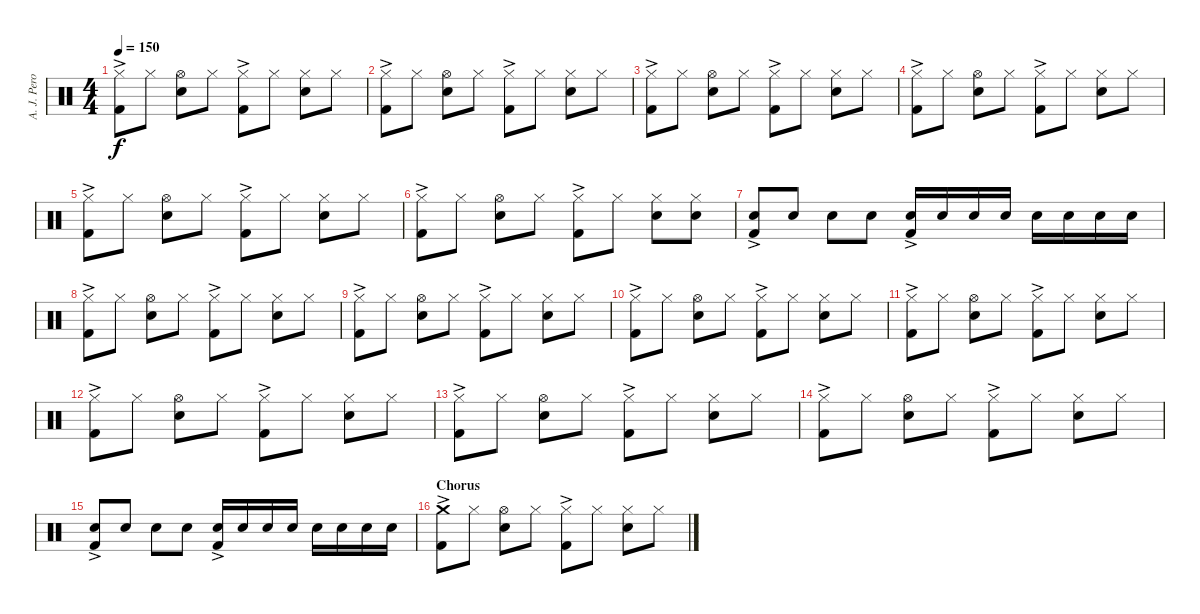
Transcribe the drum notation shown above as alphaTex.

\track ("A. J. Pero - Drums" "A. J. Pero") {instrument percussion}
\staff {score}
\articulation defaults
\ts (4 4)
\tempo 150
\clef neutral
\ks c
("Hi-Hat (closed)" "Kick (hit) 2"{ac}).8{dy f} "Hi-Hat (closed)".8 ("Hi-Hat (open)" "Electric Snare (hit)").8 "Hi-Hat (closed)".8 ("Hi-Hat (closed)" "Kick (hit) 2"{ac}).8 "Hi-Hat (closed)".8 ("Hi-Hat (closed)" "Electric Snare (hit)").8 "Hi-Hat (closed)".8 |
("Hi-Hat (closed)" "Kick (hit) 2"{ac}).8 "Hi-Hat (closed)".8 ("Hi-Hat (open)" "Electric Snare (hit)").8 "Hi-Hat (closed)".8 ("Hi-Hat (closed)" "Kick (hit) 2"{ac}).8 "Hi-Hat (closed)".8 ("Hi-Hat (closed)" "Electric Snare (hit)").8 "Hi-Hat (closed)".8 |
("Hi-Hat (closed)" "Kick (hit) 2"{ac}).8 "Hi-Hat (closed)".8 ("Hi-Hat (open)" "Electric Snare (hit)").8 "Hi-Hat (closed)".8 ("Hi-Hat (closed)" "Kick (hit) 2"{ac}).8 "Hi-Hat (closed)".8 ("Hi-Hat (closed)" "Electric Snare (hit)").8 "Hi-Hat (closed)".8 |
("Hi-Hat (closed)" "Kick (hit) 2"{ac}).8 "Hi-Hat (closed)".8 ("Hi-Hat (open)" "Electric Snare (hit)").8 "Hi-Hat (closed)".8 ("Hi-Hat (closed)" "Kick (hit) 2"{ac}).8 "Hi-Hat (closed)".8 ("Hi-Hat (closed)" "Electric Snare (hit)").8 "Hi-Hat (closed)".8 |
("Hi-Hat (closed)" "Kick (hit) 2"{ac}).8 "Hi-Hat (closed)".8 ("Hi-Hat (open)" "Electric Snare (hit)").8 "Hi-Hat (closed)".8 ("Hi-Hat (closed)" "Kick (hit) 2"{ac}).8 "Hi-Hat (closed)".8 ("Hi-Hat (closed)" "Electric Snare (hit)").8 "Hi-Hat (closed)".8 |
("Hi-Hat (closed)" "Kick (hit) 2"{ac}).8 "Hi-Hat (closed)".8 ("Hi-Hat (open)" "Electric Snare (hit)").8 "Hi-Hat (closed)".8 ("Hi-Hat (closed)" "Kick (hit) 2"{ac}).8 "Hi-Hat (closed)".8 ("Hi-Hat (closed)" "Electric Snare (hit)").8 ("Hi-Hat (closed)" "Electric Snare (hit)").8 |
("Electric Snare (hit)" "Kick (hit) 2"{ac}).8 "Electric Snare (hit)".8 "Electric Snare (hit)".8 "Electric Snare (hit)".8 ("Electric Snare (hit)" "Kick (hit) 2"{ac}).16 "Electric Snare (hit)".16 "Electric Snare (hit)".16 "Electric Snare (hit)".16 "Electric Snare (hit)".16 "Electric Snare (hit)".16 "Electric Snare (hit)".16 "Electric Snare (hit)".16 |
("Hi-Hat (closed)" "Kick (hit) 2"{ac}).8 "Hi-Hat (closed)".8 ("Hi-Hat (open)" "Electric Snare (hit)").8 "Hi-Hat (closed)".8 ("Hi-Hat (closed)" "Kick (hit) 2"{ac}).8 "Hi-Hat (closed)".8 ("Hi-Hat (closed)" "Electric Snare (hit)").8 "Hi-Hat (closed)".8 |
("Hi-Hat (closed)" "Kick (hit) 2"{ac}).8 "Hi-Hat (closed)".8 ("Hi-Hat (open)" "Electric Snare (hit)").8 "Hi-Hat (closed)".8 ("Hi-Hat (closed)" "Kick (hit) 2"{ac}).8 "Hi-Hat (closed)".8 ("Hi-Hat (closed)" "Electric Snare (hit)").8 "Hi-Hat (closed)".8 |
("Hi-Hat (closed)" "Kick (hit) 2"{ac}).8 "Hi-Hat (closed)".8 ("Hi-Hat (open)" "Electric Snare (hit)").8 "Hi-Hat (closed)".8 ("Hi-Hat (closed)" "Kick (hit) 2"{ac}).8 "Hi-Hat (closed)".8 ("Hi-Hat (closed)" "Electric Snare (hit)").8 "Hi-Hat (closed)".8 |
("Hi-Hat (closed)" "Kick (hit) 2"{ac}).8 "Hi-Hat (closed)".8 ("Hi-Hat (open)" "Electric Snare (hit)").8 "Hi-Hat (closed)".8 ("Hi-Hat (closed)" "Kick (hit) 2"{ac}).8 "Hi-Hat (closed)".8 ("Hi-Hat (closed)" "Electric Snare (hit)").8 "Hi-Hat (closed)".8 |
("Hi-Hat (closed)" "Kick (hit) 2"{ac}).8 "Hi-Hat (closed)".8 ("Hi-Hat (open)" "Electric Snare (hit)").8 "Hi-Hat (closed)".8 ("Hi-Hat (closed)" "Kick (hit) 2"{ac}).8 "Hi-Hat (closed)".8 ("Hi-Hat (closed)" "Electric Snare (hit)").8 "Hi-Hat (closed)".8 |
("Hi-Hat (closed)" "Kick (hit) 2"{ac}).8 "Hi-Hat (closed)".8 ("Hi-Hat (open)" "Electric Snare (hit)").8 "Hi-Hat (closed)".8 ("Hi-Hat (closed)" "Kick (hit) 2"{ac}).8 "Hi-Hat (closed)".8 ("Hi-Hat (closed)" "Electric Snare (hit)").8 "Hi-Hat (closed)".8 |
("Hi-Hat (closed)" "Kick (hit) 2"{ac}).8 "Hi-Hat (closed)".8 ("Hi-Hat (open)" "Electric Snare (hit)").8 "Hi-Hat (closed)".8 ("Hi-Hat (closed)" "Kick (hit) 2"{ac}).8 "Hi-Hat (closed)".8 ("Hi-Hat (closed)" "Electric Snare (hit)").8 "Hi-Hat (closed)".8 |
("Electric Snare (hit)" "Kick (hit) 2"{ac}).8 "Electric Snare (hit)".8 "Electric Snare (hit)".8 "Electric Snare (hit)".8 ("Electric Snare (hit)" "Kick (hit) 2"{ac}).16 "Electric Snare (hit)".16 "Electric Snare (hit)".16 "Electric Snare (hit)".16 "Electric Snare (hit)".16 "Electric Snare (hit)".16 "Electric Snare (hit)".16 "Electric Snare (hit)".16 |
\section ("" "Chorus")
("Crash medium (hit)" "Kick (hit) 2"{ac}).8 "Hi-Hat (closed)".8 ("Hi-Hat (open)" "Electric Snare (hit)").8 "Hi-Hat (closed)".8 ("Hi-Hat (closed)" "Kick (hit) 2"{ac}).8 "Hi-Hat (closed)".8 ("Hi-Hat (closed)" "Electric Snare (hit)").8 "Hi-Hat (closed)".8
